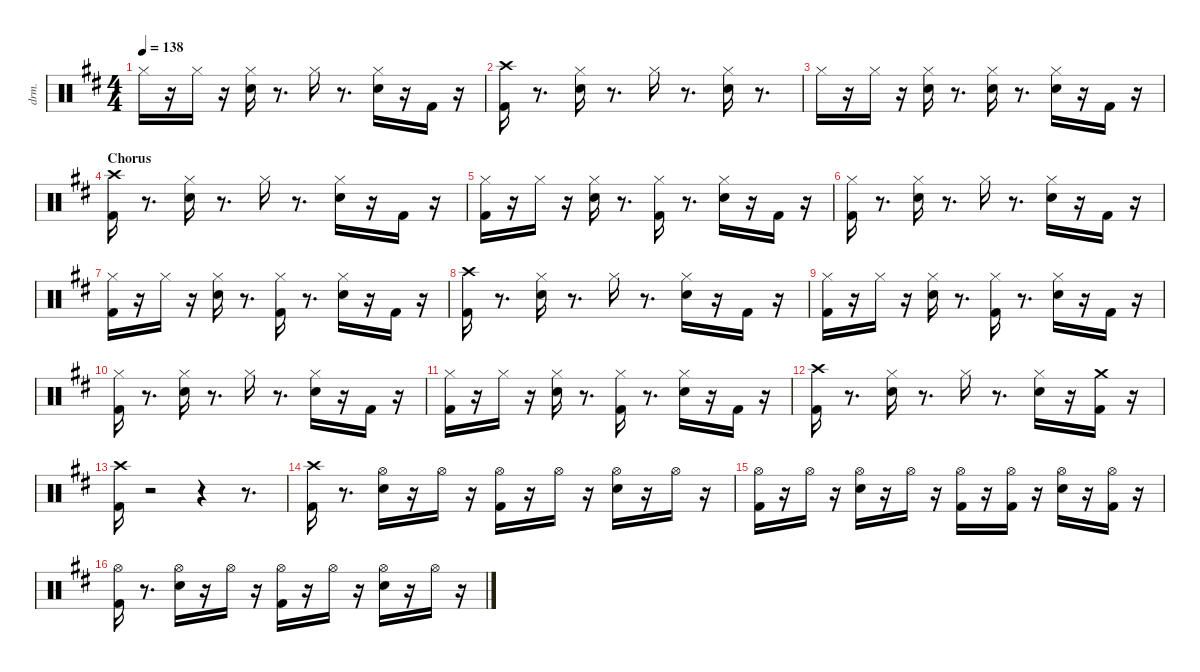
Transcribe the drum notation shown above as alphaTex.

\hideDynamics
\bracketExtendMode groupsimilarinstruments
\otherSystemsTrackNameOrientation horizontal
\track ("Drumkit" "drm.") {instrument percussion}
\staff {score}
\articulation defaults
\ts (4 4)
\tempo 138
\clef neutral
\ks d "Hi-Hat (closed)"{acc #}.16{dy mp}
r.16 "Hi-Hat (closed)"{acc #}.16{dy pp} r.16 ("Snare (hit) 2"{acc forcenatural} "Hi-Hat (closed)"{acc #}).16{dy mf} r.8{d} "Hi-Hat (closed)"{acc #}.16{dy pp} r.8{d} ("Snare (hit) 2"{acc forcenatural} "Hi-Hat (closed)"{acc #}).16{dy mp} r.16 "Kick (hit) 2"{acc forcenatural}.16{dy f} r.16 |
("Kick (hit) 2"{acc forcenatural} "Crash high (hit)"{acc #}).16 r.8{d} ("Snare (hit) 2"{acc forcenatural} "Hi-Hat (closed)"{acc #}).16{dy mf} r.8{d} "Hi-Hat (closed)"{acc #}.16{dy mp} r.8{d} ("Snare (hit) 2"{acc forcenatural} "Hi-Hat (closed)"{acc #}).16{dy mf} r.8{d} |
"Hi-Hat (closed)"{acc #}.16{dy p} r.16 "Hi-Hat (closed)"{acc #}.16{dy pp} r.16 ("Snare (hit) 2"{acc forcenatural} "Hi-Hat (closed)"{acc #}).16{dy f} r.8{d} ("Snare (hit) 2"{acc forcenatural} "Hi-Hat (closed)"{acc #}).16{dy ff} r.8{d} ("Snare (hit) 2"{acc forcenatural} "Hi-Hat (closed)"{acc #}).16{dy mp} r.16 "Kick (hit) 2"{acc forcenatural}.16{dy ff} r.16 |
\section ("" "Chorus")
("Kick (hit) 2"{acc forcenatural} "Crash high (hit)"{acc #}).16{dy f} r.8{d} ("Snare (hit) 2"{acc forcenatural} "Hi-Hat (closed)"{acc #}).16 r.8{d} "Hi-Hat (closed)"{acc #}.16{dy mp} r.8{d} ("Snare (hit) 2"{acc forcenatural} "Hi-Hat (closed)"{acc #}).16{dy f} r.16 "Kick (hit) 2"{acc forcenatural}.16 r.16 |
("Kick (hit) 2"{acc forcenatural} "Hi-Hat (closed)"{acc #}).16{dy ff} r.16 "Hi-Hat (closed)"{acc #}.16{dy pp} r.16 ("Snare (hit) 2"{acc forcenatural} "Hi-Hat (closed)"{acc #}).16{dy mf} r.8{d} ("Kick (hit) 2"{acc forcenatural} "Hi-Hat (closed)"{acc #}).16{dy fff} r.8{d} ("Snare (hit) 2"{acc forcenatural} "Hi-Hat (closed)"{acc #}).16{dy mp} r.16 "Kick (hit) 2"{acc forcenatural}.16{dy ff} r.16 |
("Kick (hit) 2"{acc forcenatural} "Hi-Hat (closed)"{acc #}).16{dy f} r.8{d} ("Snare (hit) 2"{acc forcenatural} "Hi-Hat (closed)"{acc #}).16 r.8{d} "Hi-Hat (closed)"{acc #}.16{dy mp} r.8{d} ("Snare (hit) 2"{acc forcenatural} "Hi-Hat (closed)"{acc #}).16{dy f} r.16 "Kick (hit) 2"{acc forcenatural}.16{dy ff} r.16 |
("Kick (hit) 2"{acc forcenatural} "Hi-Hat (closed)"{acc #}).16{dy fff} r.16 "Hi-Hat (closed)"{acc #}.16{dy pp} r.16 ("Snare (hit) 2"{acc forcenatural} "Hi-Hat (closed)"{acc #}).16{dy f} r.8{d} ("Kick (hit) 2"{acc forcenatural} "Hi-Hat (closed)"{acc #}).16{dy fff} r.8{d} ("Snare (hit) 2"{acc forcenatural} "Hi-Hat (closed)"{acc #}).16{dy mp} r.16 "Kick (hit) 2"{acc forcenatural}.16{dy f} r.16 |
("Kick (hit) 2"{acc forcenatural} "Crash high (hit)"{acc #}).16 r.8{d} ("Snare (hit) 2"{acc forcenatural} "Hi-Hat (closed)"{acc #}).16 r.8{d} "Hi-Hat (closed)"{acc #}.16{dy mp} r.8{d} ("Snare (hit) 2"{acc forcenatural} "Hi-Hat (closed)"{acc #}).16{dy f} r.16 "Kick (hit) 2"{acc forcenatural}.16 r.16 |
("Kick (hit) 2"{acc forcenatural} "Hi-Hat (closed)"{acc #}).16{dy fff} r.16 "Hi-Hat (closed)"{acc #}.16{dy pp} r.16 ("Snare (hit) 2"{acc forcenatural} "Hi-Hat (closed)"{acc #}).16{dy f} r.8{d} ("Kick (hit) 2"{acc forcenatural} "Hi-Hat (closed)"{acc #}).16{dy fff} r.8{d} ("Snare (hit) 2"{acc forcenatural} "Hi-Hat (closed)"{acc #}).16{dy mp} r.16 "Kick (hit) 2"{acc forcenatural}.16{dy f} r.16 |
("Kick (hit) 2"{acc forcenatural} "Hi-Hat (closed)"{acc #}).16 r.8{d} ("Snare (hit) 2"{acc forcenatural} "Hi-Hat (closed)"{acc #}).16 r.8{d} "Hi-Hat (closed)"{acc #}.16{dy mp} r.8{d} ("Snare (hit) 2"{acc forcenatural} "Hi-Hat (closed)"{acc #}).16{dy mf} r.16 "Kick (hit) 2"{acc forcenatural}.16{dy f} r.16 |
("Kick (hit) 2"{acc forcenatural} "Hi-Hat (closed)"{acc #}).16{dy fff} r.16 "Hi-Hat (closed)"{acc #}.16{dy pp} r.16 ("Snare (hit) 2"{acc forcenatural} "Hi-Hat (closed)"{acc #}).16{dy f} r.8{d} ("Kick (hit) 2"{acc forcenatural} "Hi-Hat (closed)"{acc #}).16{dy ff} r.8{d} ("Snare (hit) 2"{acc forcenatural} "Hi-Hat (closed)"{acc #}).16{dy mp} r.16 "Kick (hit) 2"{acc forcenatural}.16{dy f} r.16 |
("Kick (hit) 2"{acc forcenatural} "Crash high (hit)"{acc #}).16 r.8{d} ("Snare (hit) 2"{acc forcenatural} "Hi-Hat (closed)"{acc #}).16 r.8{d} "Hi-Hat (closed)"{acc #}.16{dy mp} r.8{d} ("Snare (hit) 2"{acc forcenatural} "Hi-Hat (closed)"{acc #}).16{dy f} r.16 ("Kick (hit) 2"{acc forcenatural} "Crash medium (hit)"{acc forcenatural}).16{dy ff} r.16 |
("Kick (hit) 2"{acc forcenatural} "Crash high (hit)"{acc #}).16{dy f} r.2 r.4 r.8{d} |
("Kick (hit) 2"{acc forcenatural} "Crash high (hit)"{acc #}).16 r.8{d} ("Snare (hit) 2"{acc forcenatural} "Hi-Hat (open)"{acc #}).16 r.16 "Hi-Hat (open)"{acc #}.16{dy p} r.16 ("Kick (hit) 2"{acc forcenatural} "Hi-Hat (open)"{acc #}).16{dy f} r.16 "Hi-Hat (open)"{acc #}.16{dy p} r.16 ("Snare (hit) 2"{acc forcenatural} "Hi-Hat (open)"{acc #}).16{dy mf} r.16 "Hi-Hat (open)"{acc #}.16{dy p} r.16 |
("Kick (hit) 2"{acc forcenatural} "Hi-Hat (open)"{acc #}).16{dy fff} r.16 "Hi-Hat (open)"{acc #}.16{dy p} r.16 ("Snare (hit) 2"{acc forcenatural} "Hi-Hat (open)"{acc #}).16{dy f} r.16 "Hi-Hat (open)"{acc #}.16{dy p} r.16 ("Kick (hit) 2"{acc forcenatural} "Hi-Hat (open)"{acc #}).16{dy ff} r.16 ("Kick (hit) 2"{acc forcenatural} "Hi-Hat (open)"{acc #}).16 r.16 ("Snare (hit) 2"{acc forcenatural} "Hi-Hat (open)"{acc #}).16{dy mp} r.16 ("Kick (hit) 2"{acc forcenatural} "Hi-Hat (open)"{acc #}).16{dy f} r.16 |
("Kick (hit) 2"{acc forcenatural} "Hi-Hat (open)"{acc #}).16 r.8{d} ("Snare (hit) 2"{acc forcenatural} "Hi-Hat (open)"{acc #}).16 r.16 "Hi-Hat (open)"{acc #}.16{dy p} r.16 ("Kick (hit) 2"{acc forcenatural} "Hi-Hat (open)"{acc #}).16{dy f} r.16 "Hi-Hat (open)"{acc #}.16{dy p} r.16 ("Snare (hit) 2"{acc forcenatural} "Hi-Hat (open)"{acc #}).16{dy f} r.16 "Hi-Hat (open)"{acc #}.16{dy p} r.16
